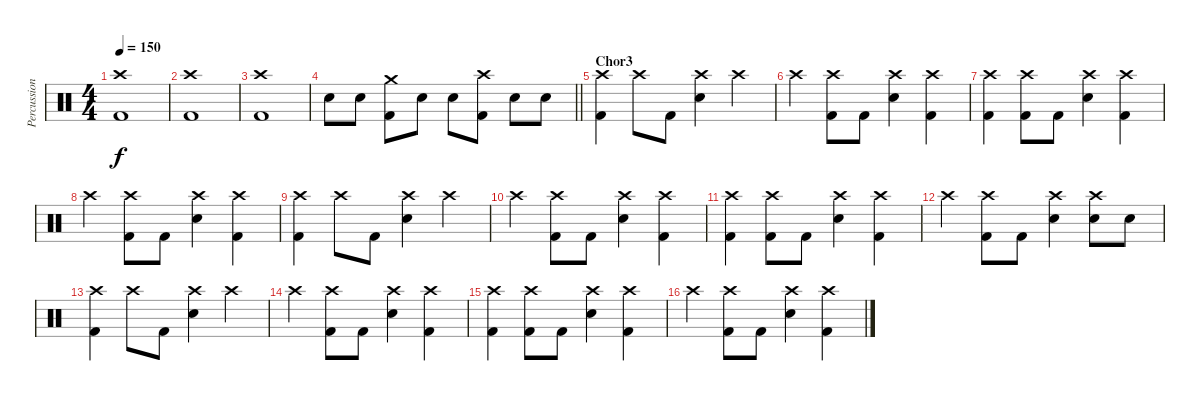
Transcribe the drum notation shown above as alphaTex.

\track ("Percussion" "Percussion") {instrument percussion}
\staff {score}
\articulation defaults
\ts (4 4)
\tempo 150
\clef neutral
\ks c
("Crash high (hit)" "Kick (hit) 2").1{dy f} |
("Crash high (hit)" "Kick (hit) 2").1 |
("Crash high (hit)" "Kick (hit) 2").1 |
\barLineRight lightlight "Snare (hit) 2".8 "Snare (hit) 2".8
("Crash medium (hit)" "Kick (hit) 2").8 "Snare (hit) 2".8 "Snare (hit) 2".8 ("Crash high (hit)" "Kick (hit) 2").8 "Snare (hit) 2".8 "Snare (hit) 2".8 |
\section ("" "Chor3")
("Crash high (hit)" "Kick (hit) 2").4 "Crash high (hit)".8 "Kick (hit) 2".8 ("Crash high (hit)" "Snare (hit) 2").4 "Crash high (hit)".4 |
"Crash high (hit)".4 ("Crash high (hit)" "Kick (hit) 2").8 "Kick (hit) 2".8 ("Crash high (hit)" "Snare (hit) 2").4 ("Crash high (hit)" "Kick (hit) 2").4 |
("Crash high (hit)" "Kick (hit) 2").4 ("Crash high (hit)" "Kick (hit) 2").8 "Kick (hit) 2".8 ("Crash high (hit)" "Snare (hit) 2").4 ("Crash high (hit)" "Kick (hit) 2").4 |
"Crash high (hit)".4 ("Crash high (hit)" "Kick (hit) 2").8 "Kick (hit) 2".8 ("Crash high (hit)" "Snare (hit) 2").4 ("Crash high (hit)" "Kick (hit) 2").4 |
("Crash high (hit)" "Kick (hit) 2").4 "Crash high (hit)".8 "Kick (hit) 2".8 ("Crash high (hit)" "Snare (hit) 2").4 "Crash high (hit)".4 |
"Crash high (hit)".4 ("Crash high (hit)" "Kick (hit) 2").8 "Kick (hit) 2".8 ("Crash high (hit)" "Snare (hit) 2").4 ("Crash high (hit)" "Kick (hit) 2").4 |
("Crash high (hit)" "Kick (hit) 2").4 ("Crash high (hit)" "Kick (hit) 2").8 "Kick (hit) 2".8 ("Crash high (hit)" "Snare (hit) 2").4 ("Crash high (hit)" "Kick (hit) 2").4 |
"Crash high (hit)".4 ("Crash high (hit)" "Kick (hit) 2").8 "Kick (hit) 2".8 ("Crash high (hit)" "Snare (hit) 2").4 ("Crash high (hit)" "Snare (hit) 2").8 "Snare (hit) 2".8 |
("Crash high (hit)" "Kick (hit) 2").4 "Crash high (hit)".8 "Kick (hit) 2".8 ("Crash high (hit)" "Snare (hit) 2").4 "Crash high (hit)".4 |
"Crash high (hit)".4 ("Crash high (hit)" "Kick (hit) 2").8 "Kick (hit) 2".8 ("Crash high (hit)" "Snare (hit) 2").4 ("Crash high (hit)" "Kick (hit) 2").4 |
("Crash high (hit)" "Kick (hit) 2").4 ("Crash high (hit)" "Kick (hit) 2").8 "Kick (hit) 2".8 ("Crash high (hit)" "Snare (hit) 2").4 ("Crash high (hit)" "Kick (hit) 2").4 |
"Crash high (hit)".4 ("Crash high (hit)" "Kick (hit) 2").8 "Kick (hit) 2".8 ("Crash high (hit)" "Snare (hit) 2").4 ("Crash high (hit)" "Kick (hit) 2").4
